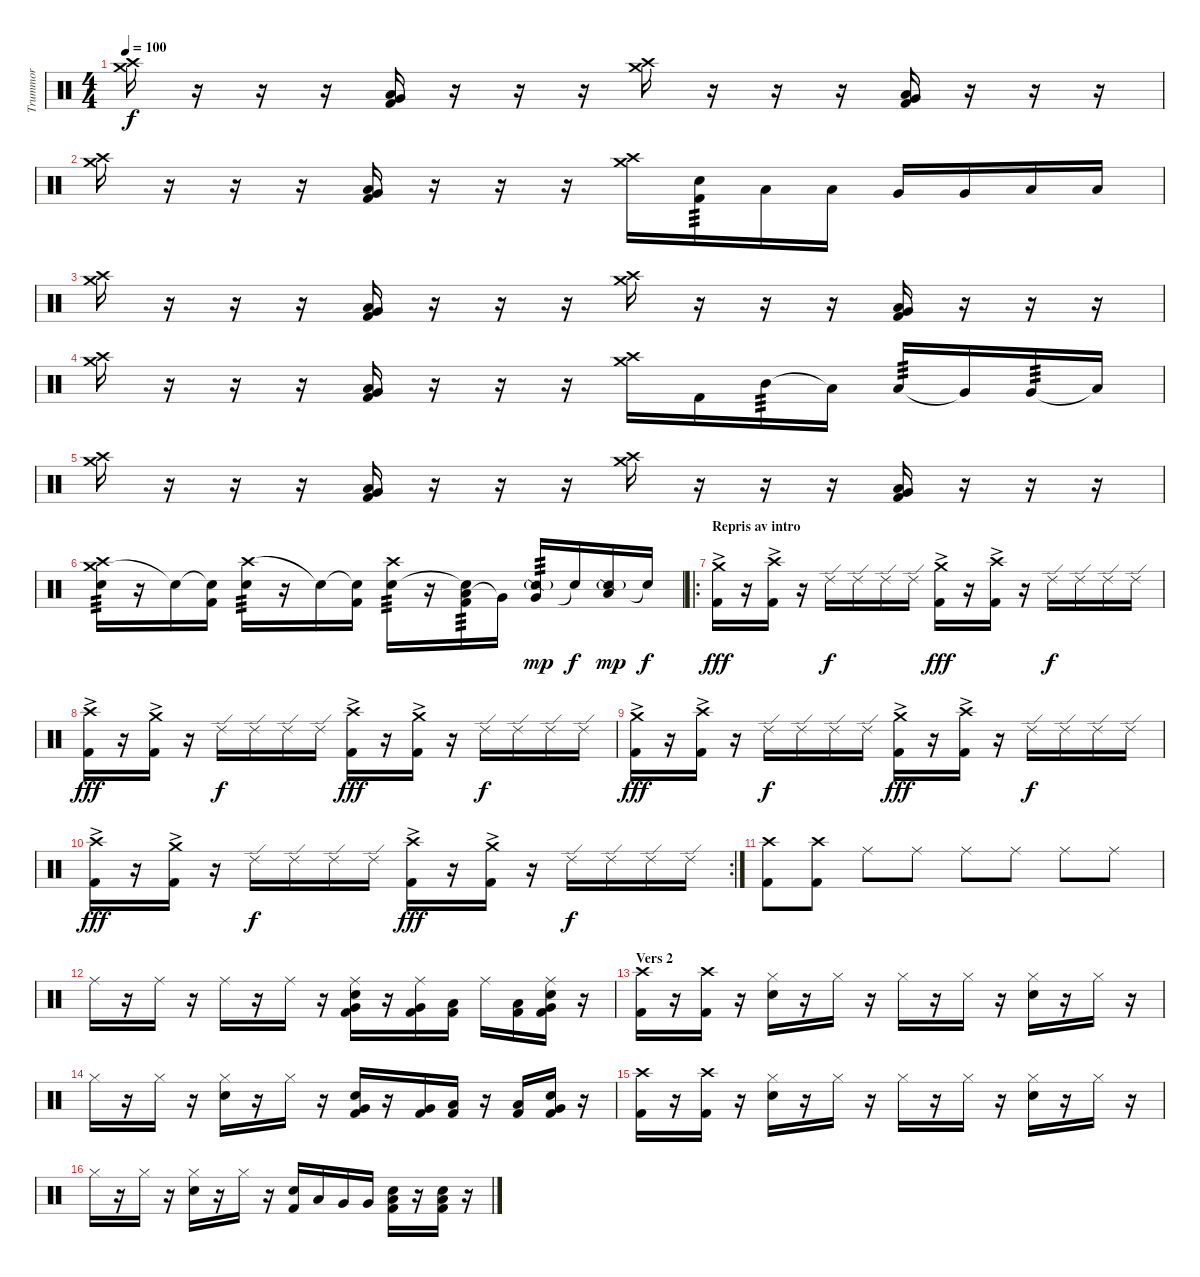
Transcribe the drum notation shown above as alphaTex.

\track ("Trummor" "Trummor") {instrument percussion}
\staff {score}
\articulation defaults
\ts (4 4)
\tempo 100
\clef neutral
\ks c
("Crash medium (hit)" "Crash high (hit)").16{dy f} r.16 r.16 r.16 ("Very Low Tom (hit)" "Low Floor Tom (hit)" "Kick (hit) 2").16 r.16 r.16 r.16 ("Crash medium (hit)" "Crash high (hit)").16 r.16 r.16 r.16 ("Very Low Tom (hit)" "Low Floor Tom (hit)" "Kick (hit) 2").16 r.16 r.16 r.16 |
("Crash medium (hit)" "Crash high (hit)").16 r.16 r.16 r.16 ("Very Low Tom (hit)" "Low Floor Tom (hit)" "Kick (hit) 2").16 r.16 r.16 r.16 ("Crash medium (hit)" "Crash high (hit)").16 ("Snare (hit) 2" "Kick (hit) 2").16{tp 3} "Low Tom (hit)".16 "Low Tom (hit)".16 "Very Low Tom (hit)".16 "Very Low Tom (hit)".16 "Low Floor Tom (hit)".16 "Low Floor Tom (hit)".16 |
("Crash medium (hit)" "Crash high (hit)").16 r.16 r.16 r.16 ("Very Low Tom (hit)" "Low Floor Tom (hit)" "Kick (hit) 2").16 r.16 r.16 r.16 ("Crash medium (hit)" "Crash high (hit)").16 r.16 r.16 r.16 ("Very Low Tom (hit)" "Low Floor Tom (hit)" "Kick (hit) 2").16 r.16 r.16 r.16 |
("Crash medium (hit)" "Crash high (hit)").16 r.16 r.16 r.16 ("Very Low Tom (hit)" "Low Floor Tom (hit)" "Kick (hit) 2").16 r.16 r.16 r.16 ("Crash medium (hit)" "Crash high (hit)").16 "Kick (hit) 2".16 "Mid Tom (hit)".16{tp 3} "Low Tom (hit)"{t}.16 "Low Tom (hit)".16{tp 3} "Very Low Tom (hit)"{t}.16 "Very Low Tom (hit)".16{tp 3} "Low Floor Tom (hit)"{t}.16 |
("Crash medium (hit)" "Crash high (hit)").16 r.16 r.16 r.16 ("Very Low Tom (hit)" "Low Floor Tom (hit)" "Kick (hit) 2").16 r.16 r.16 r.16 ("Crash medium (hit)" "Crash high (hit)").16 r.16 r.16 r.16 ("Very Low Tom (hit)" "Low Floor Tom (hit)" "Kick (hit) 2").16 r.16 r.16 r.16 |
("Crash medium (hit)" "Crash high (hit)" "Snare (hit) 2").16{tp 3} r.16 "Snare (hit)"{t}.16 ("Snare (hit) 2"{t} "Kick (hit) 2").16 ("Crash high (hit)" "Snare (hit) 2").16{tp 3} r.16 "Snare (hit) 2"{t}.16 ("Snare (hit)"{t} "Kick (hit) 2").16 ("Crash high (hit)" "Snare (hit) 2").16{tp 3} r.16 ("Low Tom (hit)" "Snare (hit)"{t} "Kick (hit) 2").16{tp 3} "Very Low Tom (hit)"{t}.16 ("Very Low Tom (hit)" "Snare (side stick) 2"{g}).16{tp 3 dy mp} "Snare (hit)"{t}.16{dy f} ("Low Floor Tom (hit)" "Snare (side stick) 2"{g}).16{dy mp} "Snare (hit)"{t}.16{dy f} |
\ro
\section ("" "Repris av intro")
("Crash medium (hit)"{ac} "Kick (hit) 2").16{dy fff} r.16 ("Crash high (hit)"{ac} "Kick (hit) 2").16 r.16 "Ride (edge) 2".16{dy f} "Ride (edge) 2".16 "Ride (edge) 2".16 "Ride (edge) 2".16 ("Crash medium (hit)"{ac} "Kick (hit) 2").16{dy fff} r.16 ("Crash high (hit)"{ac} "Kick (hit) 2").16 r.16 "Ride (edge) 2".16{dy f} "Ride (edge) 2".16 "Ride (edge) 2".16 "Ride (edge) 2".16 |
("Crash high (hit)"{ac} "Kick (hit) 2").16{dy fff} r.16 ("Crash medium (hit)"{ac} "Kick (hit) 2").16 r.16 "Ride (edge) 2".16{dy f} "Ride (edge) 2".16 "Ride (edge) 2".16 "Ride (edge) 2".16 ("Crash high (hit)"{ac} "Kick (hit) 2").16{dy fff} r.16 ("Crash medium (hit)"{ac} "Kick (hit) 2").16 r.16 "Ride (edge) 2".16{dy f} "Ride (edge) 2".16 "Ride (edge) 2".16 "Ride (edge) 2".16 |
("Crash medium (hit)"{ac} "Kick (hit) 2").16{dy fff} r.16 ("Crash high (hit)"{ac} "Kick (hit) 2").16 r.16 "Ride (edge) 2".16{dy f} "Ride (edge) 2".16 "Ride (edge) 2".16 "Ride (edge) 2".16 ("Crash medium (hit)"{ac} "Kick (hit) 2").16{dy fff} r.16 ("Crash high (hit)"{ac} "Kick (hit) 2").16 r.16 "Ride (edge) 2".16{dy f} "Ride (edge) 2".16 "Ride (edge) 2".16 "Ride (edge) 2".16 |
\rc 2
("Crash high (hit)"{ac} "Kick (hit) 2").16{dy fff} r.16 ("Crash medium (hit)"{ac} "Kick (hit) 2").16 r.16 "Ride (edge) 2".16{dy f} "Ride (edge) 2".16 "Ride (edge) 2".16 "Ride (edge) 2".16 ("Crash high (hit)"{ac} "Kick (hit) 2").16{dy fff} r.16 ("Crash medium (hit)"{ac} "Kick (hit) 2").16 r.16 "Ride (edge) 2".16{dy f} "Ride (edge) 2".16 "Ride (edge) 2".16 "Ride (edge) 2".16 |
\section ("" "")
("Crash high (hit)" "Kick (hit) 2").8 ("Crash high (hit)" "Kick (hit) 2").8 "Ride (middle)".8 "Ride (middle)".8 "Ride (middle)".8 "Ride (middle)".8 "Ride (middle)".8 "Ride (middle)".8 |
"Ride (middle)".16 r.16 "Ride (middle)".16 r.16 "Ride (middle)".16 r.16 "Ride (middle)".16 r.16 ("Ride (middle)" "Snare (hit) 2" "Very Low Tom (hit)" "Kick (hit) 2").16 r.16 ("Ride (middle)" "Very Low Tom (hit)" "Kick (hit) 2").16 ("Low Floor Tom (hit)" "Kick (hit) 2").16 "Ride (middle)".16 ("Low Floor Tom (hit)" "Kick (hit) 2").16 ("Ride (middle)" "Snare (hit) 2" "Very Low Tom (hit)" "Kick (hit) 2").16 r.16 |
\section ("" "Vers 2")
("Crash high (hit)" "Kick (hit) 2").16 r.16 ("Crash high (hit)" "Kick (hit) 2").16 r.16 ("Hi-Hat (closed)" "Snare (hit) 2").16 r.16 "Hi-Hat (closed)".16 r.16 "Hi-Hat (closed)".16 r.16 "Hi-Hat (closed)".16 r.16 ("Hi-Hat (closed)" "Snare (hit) 2").16 r.16 "Hi-Hat (closed)".16 r.16 |
"Hi-Hat (closed)".16 r.16 "Hi-Hat (closed)".16 r.16 ("Hi-Hat (closed)" "Snare (hit) 2").16 r.16 "Hi-Hat (closed)".16 r.16 ("Snare (hit) 2" "Very Low Tom (hit)" "Kick (hit) 2").16 r.16 ("Very Low Tom (hit)" "Kick (hit) 2").16 ("Low Floor Tom (hit)" "Kick (hit) 2").16 r.16 ("Low Floor Tom (hit)" "Kick (hit) 2").16 ("Snare (hit) 2" "Very Low Tom (hit)" "Kick (hit) 2").16 r.16 |
("Crash high (hit)" "Kick (hit) 2").16 r.16 ("Crash high (hit)" "Kick (hit) 2").16 r.16 ("Hi-Hat (closed)" "Snare (hit) 2").16 r.16 "Hi-Hat (closed)".16 r.16 "Hi-Hat (closed)".16 r.16 "Hi-Hat (closed)".16 r.16 ("Hi-Hat (closed)" "Snare (hit) 2").16 r.16 "Hi-Hat (closed)".16 r.16 |
"Hi-Hat (closed)".16 r.16 "Hi-Hat (closed)".16 r.16 ("Hi-Hat (closed)" "Snare (hit) 2").16 r.16 "Hi-Hat (closed)".16 r.16 ("Snare (hit) 2" "Kick (hit) 2").16 "Low Tom (hit)".16 "Very Low Tom (hit)".16 "Very Low Tom (hit)".16 ("Snare (hit) 2" "Low Floor Tom (hit)" "Kick (hit) 2").16 r.16 ("Snare (hit) 2" "Low Floor Tom (hit)" "Kick (hit) 2").16 r.16
